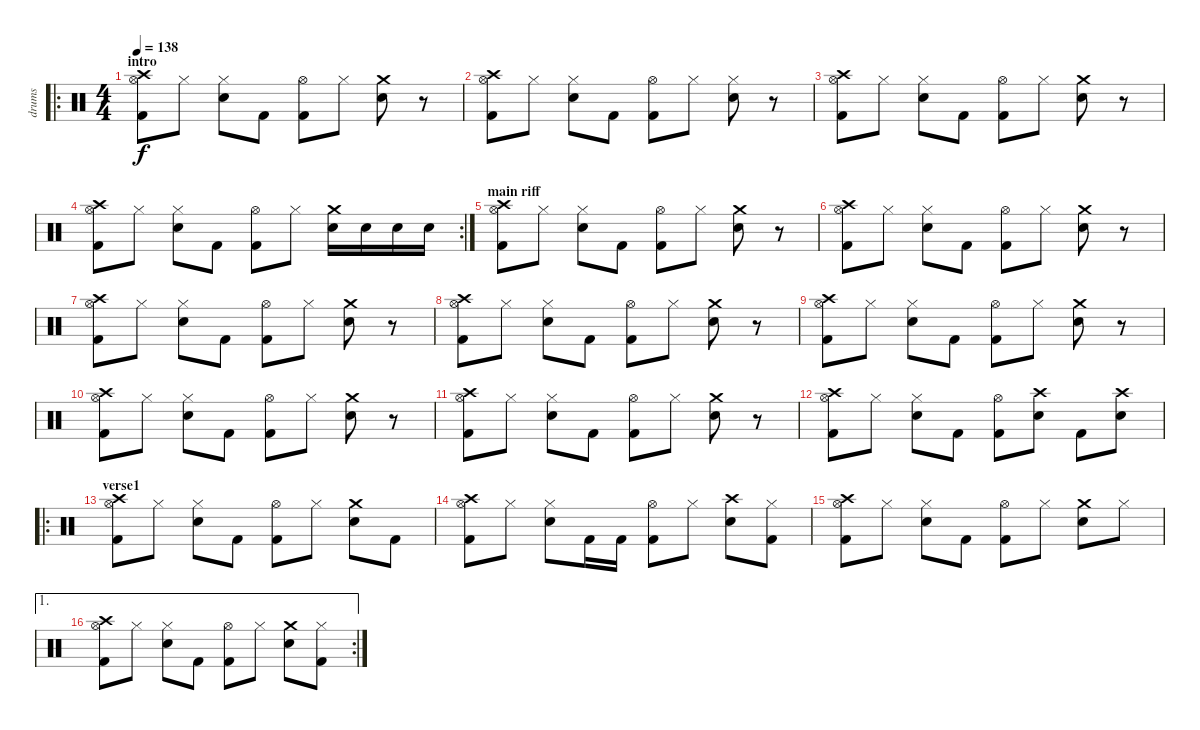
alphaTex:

\track ("drums" "drums") {instrument percussion}
\staff {score}
\articulation defaults
\ro
\ts (4 4)
\section ("" "intro")
\tempo 138
\clef neutral
\ks c
("Crash high (hit)" "Hi-Hat (open)" "Kick (hit) 2").8{dy f} "Hi-Hat (closed)".8 ("Hi-Hat (closed)" "Electric Snare (hit)").8 "Kick (hit) 2".8 ("Hi-Hat (open)" "Kick (hit) 2").8 "Hi-Hat (closed)".8 ("Crash medium (hit)" "Electric Snare (hit)").8 r.8 |
("Crash high (hit)" "Hi-Hat (open)" "Kick (hit) 2").8 "Hi-Hat (closed)".8 ("Hi-Hat (closed)" "Electric Snare (hit)").8 "Kick (hit) 2".8 ("Hi-Hat (open)" "Kick (hit) 2").8 "Hi-Hat (closed)".8 ("Hi-Hat (closed)" "Electric Snare (hit)").8 r.8 |
("Crash high (hit)" "Hi-Hat (open)" "Kick (hit) 2").8 "Hi-Hat (closed)".8 ("Hi-Hat (closed)" "Electric Snare (hit)").8 "Kick (hit) 2".8 ("Hi-Hat (open)" "Kick (hit) 2").8 "Hi-Hat (closed)".8 ("Crash medium (hit)" "Electric Snare (hit)").8 r.8 |
\rc 2
("Crash high (hit)" "Hi-Hat (open)" "Kick (hit) 2").8 "Hi-Hat (closed)".8 ("Hi-Hat (closed)" "Electric Snare (hit)").8 "Kick (hit) 2".8 ("Hi-Hat (open)" "Kick (hit) 2").8 "Hi-Hat (closed)".8 ("Crash medium (hit)" "Electric Snare (hit)").16 "Electric Snare (hit)".16 "Electric Snare (hit)".16 "Electric Snare (hit)".16 |
\section ("" "main riff")
("Crash high (hit)" "Hi-Hat (open)" "Kick (hit) 2").8 "Hi-Hat (closed)".8 ("Hi-Hat (closed)" "Electric Snare (hit)").8 "Kick (hit) 2".8 ("Hi-Hat (open)" "Kick (hit) 2").8 "Hi-Hat (closed)".8 ("Crash medium (hit)" "Electric Snare (hit)").8 r.8 |
("Crash high (hit)" "Hi-Hat (open)" "Kick (hit) 2").8 "Hi-Hat (closed)".8 ("Hi-Hat (closed)" "Electric Snare (hit)").8 "Kick (hit) 2".8 ("Hi-Hat (open)" "Kick (hit) 2").8 "Hi-Hat (closed)".8 ("Crash medium (hit)" "Electric Snare (hit)").8 r.8 |
("Crash high (hit)" "Hi-Hat (open)" "Kick (hit) 2").8 "Hi-Hat (closed)".8 ("Hi-Hat (closed)" "Electric Snare (hit)").8 "Kick (hit) 2".8 ("Hi-Hat (open)" "Kick (hit) 2").8 "Hi-Hat (closed)".8 ("Crash medium (hit)" "Electric Snare (hit)").8 r.8 |
("Crash high (hit)" "Hi-Hat (open)" "Kick (hit) 2").8 "Hi-Hat (closed)".8 ("Hi-Hat (closed)" "Electric Snare (hit)").8 "Kick (hit) 2".8 ("Hi-Hat (open)" "Kick (hit) 2").8 "Hi-Hat (closed)".8 ("Crash medium (hit)" "Electric Snare (hit)").8 r.8 |
("Crash high (hit)" "Hi-Hat (open)" "Kick (hit) 2").8 "Hi-Hat (closed)".8 ("Hi-Hat (closed)" "Electric Snare (hit)").8 "Kick (hit) 2".8 ("Hi-Hat (open)" "Kick (hit) 2").8 "Hi-Hat (closed)".8 ("Crash medium (hit)" "Electric Snare (hit)").8 r.8 |
("Crash high (hit)" "Hi-Hat (open)" "Kick (hit) 2").8 "Hi-Hat (closed)".8 ("Hi-Hat (closed)" "Electric Snare (hit)").8 "Kick (hit) 2".8 ("Hi-Hat (open)" "Kick (hit) 2").8 "Hi-Hat (closed)".8 ("Crash medium (hit)" "Electric Snare (hit)").8 r.8 |
("Crash high (hit)" "Hi-Hat (open)" "Kick (hit) 2").8 "Hi-Hat (closed)".8 ("Hi-Hat (closed)" "Electric Snare (hit)").8 "Kick (hit) 2".8 ("Hi-Hat (open)" "Kick (hit) 2").8 "Hi-Hat (closed)".8 ("Crash medium (hit)" "Electric Snare (hit)").8 r.8 |
("Crash high (hit)" "Hi-Hat (open)" "Kick (hit) 2").8 "Hi-Hat (closed)".8 ("Hi-Hat (closed)" "Electric Snare (hit)").8 "Kick (hit) 2".8 ("Hi-Hat (open)" "Kick (hit) 2").8 ("Crash high (hit)" "Electric Snare (hit)").8 "Kick (hit) 2".8 ("Crash high (hit)" "Electric Snare (hit)").8 |
\ro
\section ("" "verse1")
("Crash high (hit)" "Hi-Hat (open)" "Kick (hit) 2").8 "Hi-Hat (closed)".8 ("Hi-Hat (closed)" "Electric Snare (hit)").8 "Kick (hit) 2".8 ("Hi-Hat (open)" "Kick (hit) 2").8 "Hi-Hat (closed)".8 ("Crash medium (hit)" "Electric Snare (hit)").8 "Kick (hit) 2".8 |
("Crash high (hit)" "Hi-Hat (open)" "Kick (hit) 2").8 "Hi-Hat (closed)".8 ("Hi-Hat (closed)" "Electric Snare (hit)").8 "Kick (hit) 2".16 "Kick (hit) 2".16 ("Hi-Hat (open)" "Kick (hit) 2").8 "Hi-Hat (closed)".8 ("Crash high (hit)" "Electric Snare (hit)").8 ("Hi-Hat (closed)" "Kick (hit) 2").8 |
("Crash high (hit)" "Hi-Hat (open)" "Kick (hit) 2").8 "Hi-Hat (closed)".8 ("Hi-Hat (closed)" "Electric Snare (hit)").8 "Kick (hit) 2".8 ("Hi-Hat (open)" "Kick (hit) 2").8 "Hi-Hat (closed)".8 ("Crash medium (hit)" "Electric Snare (hit)").8 "Hi-Hat (closed)".8 |
\ae 1
\rc 2
("Crash high (hit)" "Hi-Hat (open)" "Kick (hit) 2").8 "Hi-Hat (closed)".8 ("Hi-Hat (closed)" "Electric Snare (hit)").8 "Kick (hit) 2".8 ("Hi-Hat (open)" "Kick (hit) 2").8 "Hi-Hat (closed)".8 ("Crash medium (hit)" "Electric Snare (hit)").8 ("Hi-Hat (closed)" "Kick (hit) 2").8
